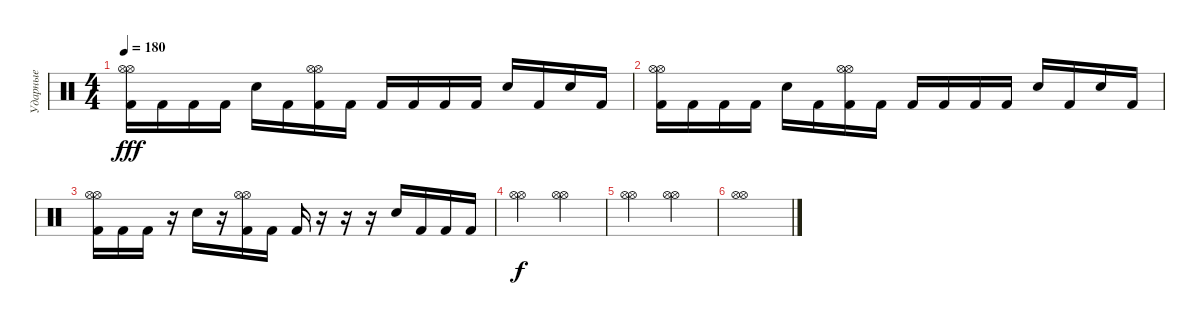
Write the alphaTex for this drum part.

\track ("Ударные" "Ударные") {instrument percussion}
\staff {score}
\articulation defaults
\ts (4 4)
\tempo 180
\clef neutral
\ks c
("Hi-Hat (open)" "Hi-Hat (open)" "Kick (hit) 2").16{dy fff} "Kick (hit) 2".16 "Kick (hit) 2".16 "Kick (hit) 2".16 "Electric Snare (hit)".16 "Kick (hit) 2".16 ("Hi-Hat (open)" "Hi-Hat (open)" "Kick (hit) 2").16 "Kick (hit) 2".16 "Kick (hit) 2".16 "Kick (hit) 2".16 "Kick (hit) 2".16 "Kick (hit) 2".16 "Electric Snare (hit)".16 "Kick (hit) 2".16 "Electric Snare (hit)".16 "Kick (hit) 2".16 |
("Hi-Hat (open)" "Hi-Hat (open)" "Kick (hit) 2").16 "Kick (hit) 2".16 "Kick (hit) 2".16 "Kick (hit) 2".16 "Electric Snare (hit)".16 "Kick (hit) 2".16 ("Hi-Hat (open)" "Hi-Hat (open)" "Kick (hit) 2").16 "Kick (hit) 2".16 "Kick (hit) 2".16 "Kick (hit) 2".16 "Kick (hit) 2".16 "Kick (hit) 2".16 "Electric Snare (hit)".16 "Kick (hit) 2".16 "Electric Snare (hit)".16 "Kick (hit) 2".16 |
("Hi-Hat (open)" "Hi-Hat (open)" "Kick (hit) 2").16 "Kick (hit) 2".16 "Kick (hit) 2".16 r.16 "Electric Snare (hit)".16 r.16 ("Hi-Hat (open)" "Hi-Hat (open)" "Kick (hit) 2").16 "Kick (hit) 2".16 "Kick (hit) 2".16 r.16 r.16 r.16 "Electric Snare (hit)".16 "Kick (hit) 2".16 "Kick (hit) 2".16 "Kick (hit) 2".16 |
("Hi-Hat (open)" "Hi-Hat (open)").2{dy f} ("Hi-Hat (open)" "Hi-Hat (open)").2 |
("Hi-Hat (open)" "Hi-Hat (open)").2 ("Hi-Hat (open)" "Hi-Hat (open)").2 |
("Hi-Hat (open)" "Hi-Hat (open)").1
